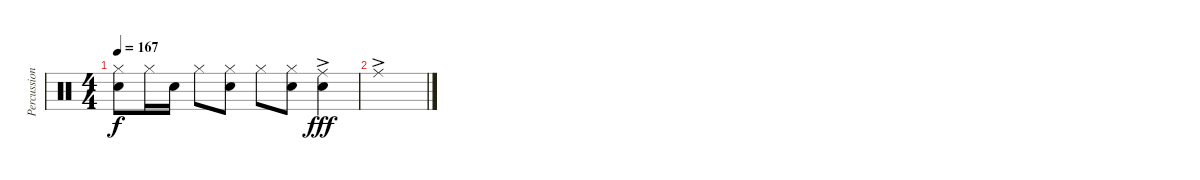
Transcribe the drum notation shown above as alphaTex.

\track ("Percussion" "Percussion") {instrument percussion}
\staff {score}
\articulation defaults
\ts (4 4)
\tempo 167
\clef neutral
\ks c
("Hi-Hat (closed)" "Snare (hit) 2").8{dy f} "Hi-Hat (closed)".16 "Snare (hit) 2".16 "Hi-Hat (closed)".8 ("Hi-Hat (closed)" "Snare (hit) 2").8 "Hi-Hat (closed)".8 ("Hi-Hat (closed)" "Snare (hit) 2").8 ("Ride (middle)"{ac} "Snare (hit) 2").4{dy fff} |
"Ride (middle)"{ac}.1
